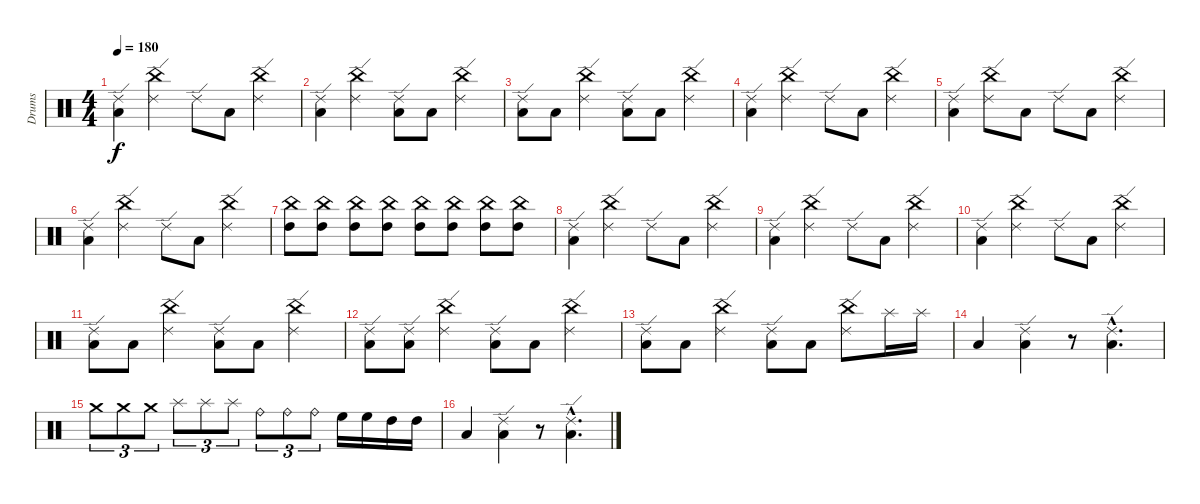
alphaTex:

\track ("Drums" "Drums") {instrument percussion}
\staff {score}
\articulation defaults
\ts (4 4)
\tempo 180
\clef neutral
\ks c
("Ride (edge) 2" "Low Tom (hit)").4{dy f} ("Ride (edge) 2" "China (hit)").4 "Ride (edge) 2".8 "Low Tom (hit)".8 ("Ride (edge) 2" "China (hit)").4 |
("Low Tom (hit)" "Ride (edge) 2").4 ("Ride (edge) 2" "China (hit)").4 ("Ride (edge) 2" "Low Tom (hit)").8 "Low Tom (hit)".8 ("Ride (edge) 2" "China (hit)").4 |
("Low Tom (hit)" "Ride (edge) 2").8 "Low Tom (hit)".8 ("China (hit)" "Ride (edge) 2").4 ("Low Tom (hit)" "Ride (edge) 2").8 "Low Tom (hit)".8 ("China (hit)" "Ride (edge) 2").4 |
("Low Tom (hit)" "Ride (edge) 2").4 ("China (hit)" "Ride (edge) 2").4 "Ride (edge) 2".8 "Low Tom (hit)".8 ("China (hit)" "Ride (edge) 2").4 |
("Low Tom (hit)" "Ride (edge) 2").4 ("China (hit)" "Ride (edge) 2").8 "Low Tom (hit)".8 "Ride (edge) 2".8 "Low Tom (hit)".8 ("China (hit)" "Ride (edge) 2").4 |
("Low Tom (hit)" "Ride (edge) 2").4 ("China (hit)" "Ride (edge) 2").4 "Ride (edge) 2".8 "Low Tom (hit)".8 ("China (hit)" "Ride (edge) 2").4 |
("China (hit)" "High Tom (hit)").8 ("High Tom (hit)" "China (hit)").8 ("High Tom (hit)" "China (hit)").8 ("China (hit)" "High Tom (hit)").8 ("High Tom (hit)" "China (hit)").8 ("China (hit)" "High Tom (hit)").8 ("High Tom (hit)" "China (hit)").8 ("High Tom (hit)" "China (hit)").8 |
("Low Tom (hit)" "Ride (edge) 2").4 ("China (hit)" "Ride (edge) 2").4 "Ride (edge) 2".8 "Low Tom (hit)".8 ("China (hit)" "Ride (edge) 2").4 |
("Low Tom (hit)" "Ride (edge) 2").4 ("China (hit)" "Ride (edge) 2").4 "Ride (edge) 2".8 "Low Tom (hit)".8 ("China (hit)" "Ride (edge) 2").4 |
("Low Tom (hit)" "Ride (edge) 2").4 ("China (hit)" "Ride (edge) 2").4 "Ride (edge) 2".8 "Low Tom (hit)".8 ("China (hit)" "Ride (edge) 2").4 |
("Low Tom (hit)" "Ride (edge) 2").8 "Low Tom (hit)".8 ("China (hit)" "Ride (edge) 2").4 ("Low Tom (hit)" "Ride (edge) 2").8 "Low Tom (hit)".8 ("China (hit)" "Ride (edge) 2").4 |
("Low Tom (hit)" "Ride (edge) 2").8 ("Ride (edge) 2" "Low Tom (hit)").8 ("Ride (edge) 2" "China (hit)").4 ("Ride (edge) 2" "Low Tom (hit)").8 "Low Tom (hit)".8 ("Ride (edge) 2" "China (hit)").4 |
("Ride (edge) 2" "Low Tom (hit)").8 "Low Tom (hit)".8 ("Ride (edge) 2" "China (hit)").4 ("Ride (edge) 2" "Low Tom (hit)").8 "Low Tom (hit)".8 ("Ride (edge) 2" "China (hit)").8 "Splash (hit)".16 "Splash (hit)".16 |
"Low Tom (hit)".4 ("Low Tom (hit)" "Ride (edge) 2").4 r.8 ("Ride (edge) 2"{hac} "Low Tom (hit)"{hac}).4{d} |
"Crash medium (hit)".8{tu (3 2)} "Crash medium (hit)".8{tu (3 2)} "Crash medium (hit)".8{tu (3 2)} "Splash (hit)".8{tu (3 2)} "Splash (hit)".8{tu (3 2)} "Splash (hit)".8{tu (3 2)} "Ride (bell)".8{tu (3 2)} "Ride (bell)".8{tu (3 2)} "Ride (bell)".8{tu (3 2)} "High Floor Tom (hit)".16 "High Floor Tom (hit)".16 "High Tom (hit)".16 "High Tom (hit)".16 |
"Low Tom (hit)".4 ("Low Tom (hit)" "Ride (edge) 2").4 r.8 ("Ride (edge) 2"{hac} "Low Tom (hit)"{hac}).4{d}
